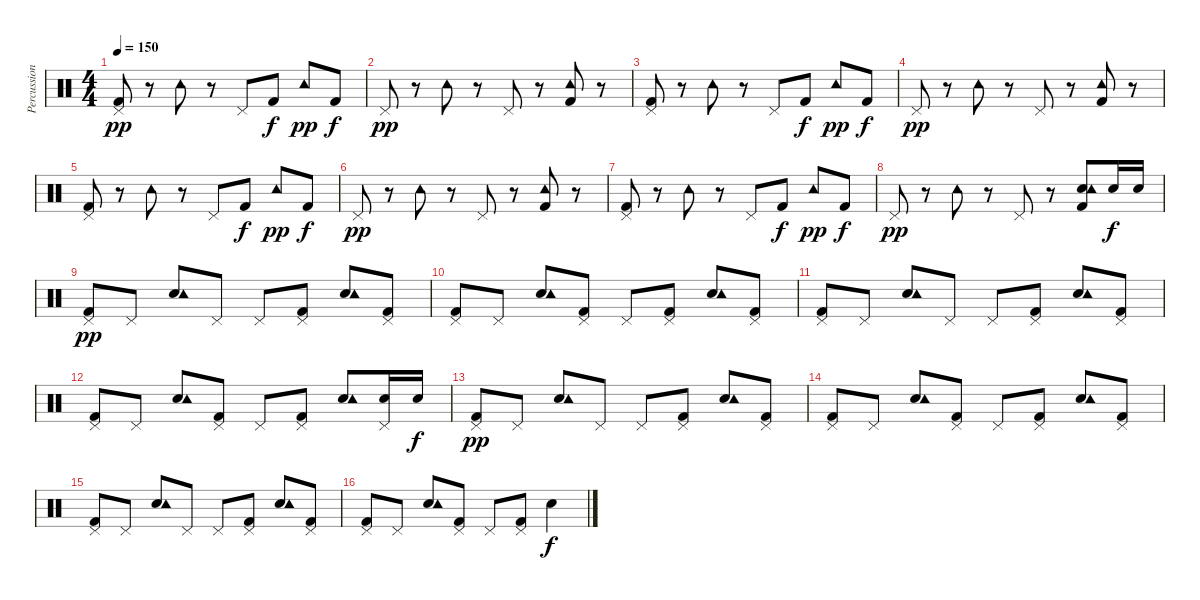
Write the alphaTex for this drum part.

\track ("Percussion" "Percussion") {instrument percussion}
\staff {score}
\articulation defaults
\ts (4 4)
\tempo 150
\tempo 140
\tempo 150
\clef neutral
\ks c
("Kick (hit) 2" "Pedal Hi-Hat (hit)").8{dy pp} r.8 "Tambourine (hit)".8 r.8 "Pedal Hi-Hat (hit)".8 "Kick (hit) 2".8{dy f} "Tambourine (hit)".8{dy pp} "Kick (hit) 2".8{dy f} |
"Pedal Hi-Hat (hit)".8{dy pp} r.8 "Tambourine (hit)".8 r.8 "Pedal Hi-Hat (hit)".8 r.8 ("Kick (hit) 2" "Tambourine (hit)").8 r.8 |
("Kick (hit) 2" "Pedal Hi-Hat (hit)").8 r.8 "Tambourine (hit)".8 r.8 "Pedal Hi-Hat (hit)".8 "Kick (hit) 2".8{dy f} "Tambourine (hit)".8{dy pp} "Kick (hit) 2".8{dy f} |
"Pedal Hi-Hat (hit)".8{dy pp} r.8 "Tambourine (hit)".8 r.8 "Pedal Hi-Hat (hit)".8 r.8 ("Kick (hit) 2" "Tambourine (hit)").8 r.8 |
("Kick (hit) 2" "Pedal Hi-Hat (hit)").8 r.8 "Tambourine (hit)".8 r.8 "Pedal Hi-Hat (hit)".8 "Kick (hit) 2".8{dy f} "Tambourine (hit)".8{dy pp} "Kick (hit) 2".8{dy f} |
"Pedal Hi-Hat (hit)".8{dy pp} r.8 "Tambourine (hit)".8 r.8 "Pedal Hi-Hat (hit)".8 r.8 ("Kick (hit) 2" "Tambourine (hit)").8 r.8 |
("Kick (hit) 2" "Pedal Hi-Hat (hit)").8 r.8 "Tambourine (hit)".8 r.8 "Pedal Hi-Hat (hit)".8 "Kick (hit) 2".8{dy f} "Tambourine (hit)".8{dy pp} "Kick (hit) 2".8{dy f} |
"Pedal Hi-Hat (hit)".8{dy pp} r.8 "Tambourine (hit)".8 r.8 "Pedal Hi-Hat (hit)".8 r.8 ("Kick (hit) 2" "Electric Snare (hit)" "Tambourine (hit)").8 "Electric Snare (hit)".16{dy f} "Electric Snare (hit)".16 |
("Kick (hit) 2" "Pedal Hi-Hat (hit)").8{dy pp} "Pedal Hi-Hat (hit)".8 ("Electric Snare (hit)" "Tambourine (hit)").8 "Pedal Hi-Hat (hit)".8 "Pedal Hi-Hat (hit)".8 ("Kick (hit) 2" "Pedal Hi-Hat (hit)").8 ("Electric Snare (hit)" "Tambourine (hit)").8 ("Kick (hit) 2" "Pedal Hi-Hat (hit)").8 |
("Kick (hit) 2" "Pedal Hi-Hat (hit)").8 "Pedal Hi-Hat (hit)".8 ("Electric Snare (hit)" "Tambourine (hit)").8 ("Kick (hit) 2" "Pedal Hi-Hat (hit)").8 "Pedal Hi-Hat (hit)".8 ("Kick (hit) 2" "Pedal Hi-Hat (hit)").8 ("Electric Snare (hit)" "Tambourine (hit)").8 ("Kick (hit) 2" "Pedal Hi-Hat (hit)").8 |
("Kick (hit) 2" "Pedal Hi-Hat (hit)").8 "Pedal Hi-Hat (hit)".8 ("Electric Snare (hit)" "Tambourine (hit)").8 "Pedal Hi-Hat (hit)".8 "Pedal Hi-Hat (hit)".8 ("Kick (hit) 2" "Pedal Hi-Hat (hit)").8 ("Electric Snare (hit)" "Tambourine (hit)").8 ("Kick (hit) 2" "Pedal Hi-Hat (hit)").8 |
("Kick (hit) 2" "Pedal Hi-Hat (hit)").8 "Pedal Hi-Hat (hit)".8 ("Electric Snare (hit)" "Tambourine (hit)").8 ("Kick (hit) 2" "Pedal Hi-Hat (hit)").8 "Pedal Hi-Hat (hit)".8 ("Kick (hit) 2" "Pedal Hi-Hat (hit)").8 ("Electric Snare (hit)" "Tambourine (hit)").8 ("Electric Snare (hit)" "Pedal Hi-Hat (hit)").16 "Electric Snare (hit)".16{dy f} |
("Kick (hit) 2" "Pedal Hi-Hat (hit)").8{dy pp} "Pedal Hi-Hat (hit)".8 ("Electric Snare (hit)" "Tambourine (hit)").8 "Pedal Hi-Hat (hit)".8 "Pedal Hi-Hat (hit)".8 ("Kick (hit) 2" "Pedal Hi-Hat (hit)").8 ("Electric Snare (hit)" "Tambourine (hit)").8 ("Kick (hit) 2" "Pedal Hi-Hat (hit)").8 |
("Kick (hit) 2" "Pedal Hi-Hat (hit)").8 "Pedal Hi-Hat (hit)".8 ("Electric Snare (hit)" "Tambourine (hit)").8 ("Kick (hit) 2" "Pedal Hi-Hat (hit)").8 "Pedal Hi-Hat (hit)".8 ("Kick (hit) 2" "Pedal Hi-Hat (hit)").8 ("Electric Snare (hit)" "Tambourine (hit)").8 ("Kick (hit) 2" "Pedal Hi-Hat (hit)").8 |
("Kick (hit) 2" "Pedal Hi-Hat (hit)").8 "Pedal Hi-Hat (hit)".8 ("Electric Snare (hit)" "Tambourine (hit)").8 "Pedal Hi-Hat (hit)".8 "Pedal Hi-Hat (hit)".8 ("Kick (hit) 2" "Pedal Hi-Hat (hit)").8 ("Electric Snare (hit)" "Tambourine (hit)").8 ("Kick (hit) 2" "Pedal Hi-Hat (hit)").8 |
("Kick (hit) 2" "Pedal Hi-Hat (hit)").8 "Pedal Hi-Hat (hit)".8 ("Electric Snare (hit)" "Tambourine (hit)").8 ("Kick (hit) 2" "Pedal Hi-Hat (hit)").8 "Pedal Hi-Hat (hit)".8 ("Kick (hit) 2" "Pedal Hi-Hat (hit)").8 "Electric Snare (hit)".4{dy f}
